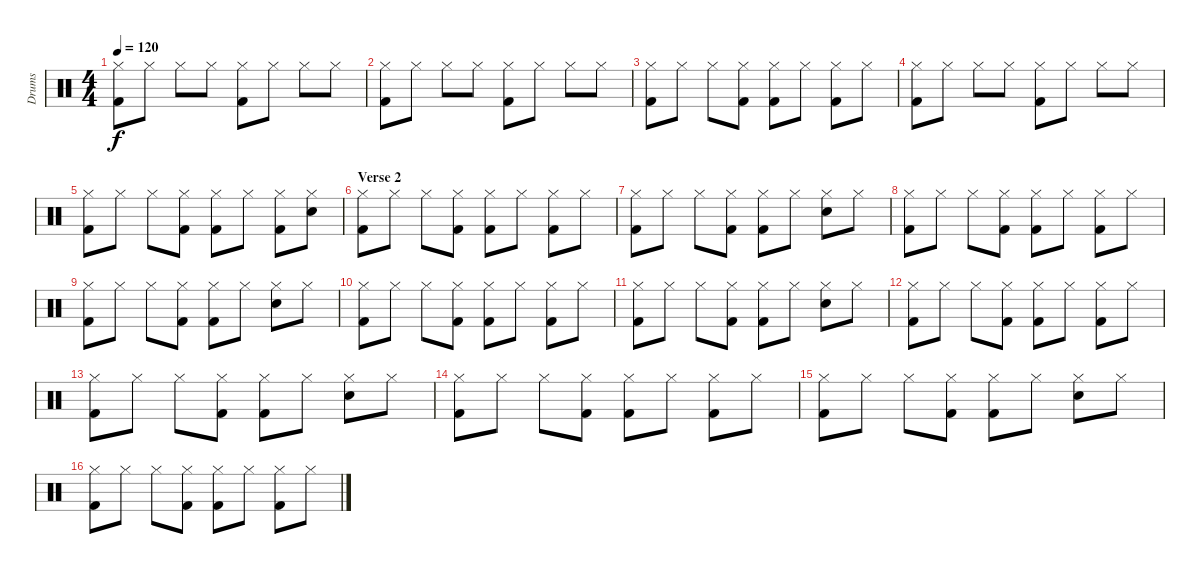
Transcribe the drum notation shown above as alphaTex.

\track ("Drums" "Drums") {instrument percussion}
\staff {score}
\articulation defaults
\ts (4 4)
\tempo 120
\clef neutral
\ks c
("Kick (hit) 2" "Hi-Hat (closed)").8{dy f} "Hi-Hat (closed)".8 "Hi-Hat (closed)".8 "Hi-Hat (closed)".8 ("Kick (hit) 2" "Hi-Hat (closed)").8 "Hi-Hat (closed)".8 "Hi-Hat (closed)".8 "Hi-Hat (closed)".8 |
("Kick (hit) 2" "Hi-Hat (closed)").8 "Hi-Hat (closed)".8 "Hi-Hat (closed)".8 "Hi-Hat (closed)".8 ("Kick (hit) 2" "Hi-Hat (closed)").8 "Hi-Hat (closed)".8 "Hi-Hat (closed)".8 "Hi-Hat (closed)".8 |
("Kick (hit) 2" "Hi-Hat (closed)").8 "Hi-Hat (closed)".8 "Hi-Hat (closed)".8 ("Kick (hit) 2" "Hi-Hat (closed)").8 ("Kick (hit) 2" "Hi-Hat (closed)").8 "Hi-Hat (closed)".8 ("Kick (hit) 2" "Hi-Hat (closed)").8 "Hi-Hat (closed)".8 |
("Kick (hit) 2" "Hi-Hat (closed)").8 "Hi-Hat (closed)".8 "Hi-Hat (closed)".8 "Hi-Hat (closed)".8 ("Kick (hit) 2" "Hi-Hat (closed)").8 "Hi-Hat (closed)".8 "Hi-Hat (closed)".8 "Hi-Hat (closed)".8 |
("Kick (hit) 2" "Hi-Hat (closed)").8 "Hi-Hat (closed)".8 "Hi-Hat (closed)".8 ("Kick (hit) 2" "Hi-Hat (closed)").8 ("Kick (hit) 2" "Hi-Hat (closed)").8 "Hi-Hat (closed)".8 ("Kick (hit) 2" "Hi-Hat (closed)").8 ("Snare (hit) 2" "Hi-Hat (closed)").8 |
\section ("" "Verse 2")
("Kick (hit) 2" "Hi-Hat (closed)").8 "Hi-Hat (closed)".8 "Hi-Hat (closed)".8 ("Kick (hit) 2" "Hi-Hat (closed)").8 ("Kick (hit) 2" "Hi-Hat (closed)").8 "Hi-Hat (closed)".8 ("Kick (hit) 2" "Hi-Hat (closed)").8 "Hi-Hat (closed)".8 |
("Kick (hit) 2" "Hi-Hat (closed)").8 "Hi-Hat (closed)".8 "Hi-Hat (closed)".8 ("Kick (hit) 2" "Hi-Hat (closed)").8 ("Kick (hit) 2" "Hi-Hat (closed)").8 "Hi-Hat (closed)".8 ("Snare (hit) 2" "Hi-Hat (closed)").8 "Hi-Hat (closed)".8 |
("Kick (hit) 2" "Hi-Hat (closed)").8 "Hi-Hat (closed)".8 "Hi-Hat (closed)".8 ("Kick (hit) 2" "Hi-Hat (closed)").8 ("Kick (hit) 2" "Hi-Hat (closed)").8 "Hi-Hat (closed)".8 ("Kick (hit) 2" "Hi-Hat (closed)").8 "Hi-Hat (closed)".8 |
("Kick (hit) 2" "Hi-Hat (closed)").8 "Hi-Hat (closed)".8 "Hi-Hat (closed)".8 ("Kick (hit) 2" "Hi-Hat (closed)").8 ("Kick (hit) 2" "Hi-Hat (closed)").8 "Hi-Hat (closed)".8 ("Snare (hit) 2" "Hi-Hat (closed)").8 "Hi-Hat (closed)".8 |
("Kick (hit) 2" "Hi-Hat (closed)").8 "Hi-Hat (closed)".8 "Hi-Hat (closed)".8 ("Kick (hit) 2" "Hi-Hat (closed)").8 ("Kick (hit) 2" "Hi-Hat (closed)").8 "Hi-Hat (closed)".8 ("Kick (hit) 2" "Hi-Hat (closed)").8 "Hi-Hat (closed)".8 |
("Kick (hit) 2" "Hi-Hat (closed)").8 "Hi-Hat (closed)".8 "Hi-Hat (closed)".8 ("Kick (hit) 2" "Hi-Hat (closed)").8 ("Kick (hit) 2" "Hi-Hat (closed)").8 "Hi-Hat (closed)".8 ("Snare (hit) 2" "Hi-Hat (closed)").8 "Hi-Hat (closed)".8 |
("Kick (hit) 2" "Hi-Hat (closed)").8 "Hi-Hat (closed)".8 "Hi-Hat (closed)".8 ("Kick (hit) 2" "Hi-Hat (closed)").8 ("Kick (hit) 2" "Hi-Hat (closed)").8 "Hi-Hat (closed)".8 ("Kick (hit) 2" "Hi-Hat (closed)").8 "Hi-Hat (closed)".8 |
("Kick (hit) 2" "Hi-Hat (closed)").8 "Hi-Hat (closed)".8 "Hi-Hat (closed)".8 ("Kick (hit) 2" "Hi-Hat (closed)").8 ("Kick (hit) 2" "Hi-Hat (closed)").8 "Hi-Hat (closed)".8 ("Snare (hit) 2" "Hi-Hat (closed)").8 "Hi-Hat (closed)".8 |
("Kick (hit) 2" "Hi-Hat (closed)").8 "Hi-Hat (closed)".8 "Hi-Hat (closed)".8 ("Kick (hit) 2" "Hi-Hat (closed)").8 ("Kick (hit) 2" "Hi-Hat (closed)").8 "Hi-Hat (closed)".8 ("Kick (hit) 2" "Hi-Hat (closed)").8 "Hi-Hat (closed)".8 |
("Kick (hit) 2" "Hi-Hat (closed)").8 "Hi-Hat (closed)".8 "Hi-Hat (closed)".8 ("Kick (hit) 2" "Hi-Hat (closed)").8 ("Kick (hit) 2" "Hi-Hat (closed)").8 "Hi-Hat (closed)".8 ("Snare (hit) 2" "Hi-Hat (closed)").8 "Hi-Hat (closed)".8 |
("Kick (hit) 2" "Hi-Hat (closed)").8 "Hi-Hat (closed)".8 "Hi-Hat (closed)".8 ("Kick (hit) 2" "Hi-Hat (closed)").8 ("Kick (hit) 2" "Hi-Hat (closed)").8 "Hi-Hat (closed)".8 ("Kick (hit) 2" "Hi-Hat (closed)").8 "Hi-Hat (closed)".8
